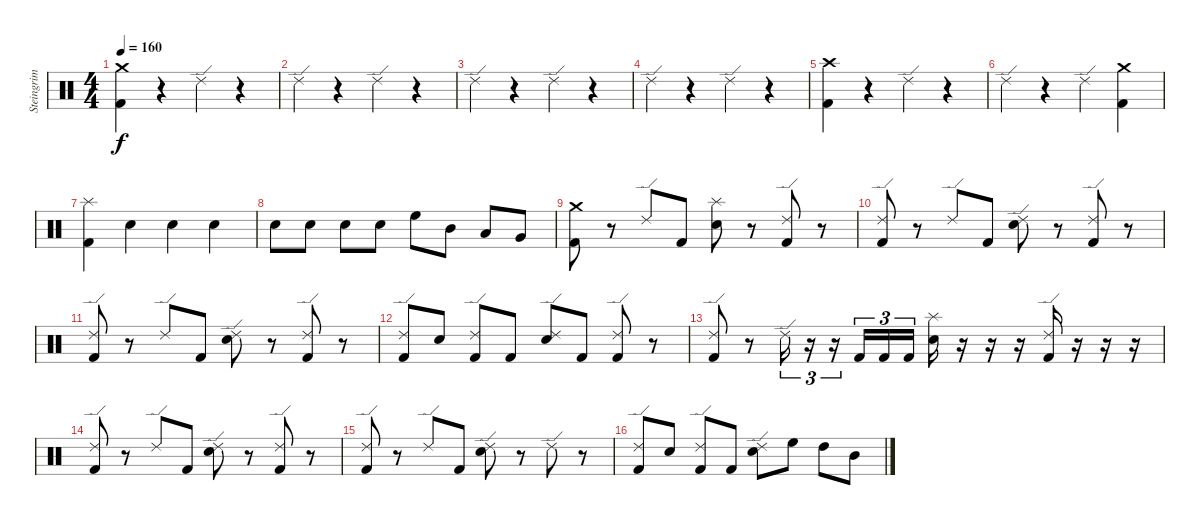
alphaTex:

\track ("Steingrim Trommur" "Steingrim ") {instrument percussion}
\staff {score}
\articulation defaults
\ts (4 4)
\tempo 160
\clef neutral
\ks c
("Crash medium (hit)" "Kick (hit) 2").4{dy f} r.4 "Ride (edge) 2".4 r.4 |
"Ride (edge) 2".4 r.4 "Ride (edge) 2".4 r.4 |
"Ride (edge) 2".4 r.4 "Ride (edge) 2".4 r.4 |
"Ride (edge) 2".4 r.4 "Ride (edge) 2".4 r.4 |
("Crash high (hit)" "Kick (hit) 2").4 r.4 "Ride (edge) 2".4 r.4 |
"Ride (edge) 2".4 r.4 "Ride (edge) 2".4 ("Crash medium (hit)" "Kick (hit) 2").4 |
("Splash (hit)" "Kick (hit) 2").4 "Electric Snare (hit)".4 "Electric Snare (hit)".4 "Electric Snare (hit)".4 |
"Electric Snare (hit)".8 "Electric Snare (hit)".8 "Electric Snare (hit)".8 "Electric Snare (hit)".8 "High Floor Tom (hit)".8 "Mid Tom (hit)".8 "Low Tom (hit)".8 "Very Low Tom (hit)".8 |
("Crash medium (hit)" "Kick (hit) 2").8 r.8 "Ride (edge) 2".8 "Kick (hit) 2".8 ("Splash (hit)" "Electric Snare (hit)").8 r.8 ("Ride (edge) 2" "Kick (hit) 2").8 r.8 |
("Ride (edge) 2" "Kick (hit) 2").8 r.8 "Ride (edge) 2".8 "Kick (hit) 2".8 ("Ride (edge) 2" "Electric Snare (hit)").8 r.8 ("Ride (edge) 2" "Kick (hit) 2").8 r.8 |
("Ride (edge) 2" "Kick (hit) 2").8 r.8 "Ride (edge) 2".8 "Kick (hit) 2".8 ("Ride (edge) 2" "Electric Snare (hit)").8 r.8 ("Ride (edge) 2" "Kick (hit) 2").8 r.8 |
("Ride (edge) 2" "Kick (hit) 2").8 "Electric Snare (hit)".8 ("Ride (edge) 2" "Kick (hit) 2").8 "Kick (hit) 2".8 ("Ride (edge) 2" "Electric Snare (hit)").8 "Kick (hit) 2".8 ("Ride (edge) 2" "Kick (hit) 2").8 r.8 |
("Ride (edge) 2" "Kick (hit) 2").8 r.8 "Ride (edge) 2".16{tu (3 2)} r.16{tu (3 2)} r.16{tu (3 2)} "Kick (hit) 2".16{tu (3 2)} "Kick (hit) 2".16{tu (3 2)} "Kick (hit) 2".16{tu (3 2)} ("Splash (hit)" "Electric Snare (hit)").16 r.16 r.16 r.16 ("Ride (edge) 2" "Kick (hit) 2").16 r.16 r.16 r.16 |
("Ride (edge) 2" "Kick (hit) 2").8 r.8 "Ride (edge) 2".8 "Kick (hit) 2".8 ("Ride (edge) 2" "Electric Snare (hit)").8 r.8 ("Ride (edge) 2" "Kick (hit) 2").8 r.8 |
("Ride (edge) 2" "Kick (hit) 2").8 r.8 "Ride (edge) 2".8 "Kick (hit) 2".8 ("Ride (edge) 2" "Electric Snare (hit)").8 r.8 "Ride (edge) 2".8 r.8 |
("Ride (edge) 2" "Kick (hit) 2").8 "Electric Snare (hit)".8 ("Ride (edge) 2" "Kick (hit) 2").8 "Kick (hit) 2".8 ("Ride (edge) 2" "Electric Snare (hit)").8 "High Floor Tom (hit)".8 "High Tom (hit)".8 "Mid Tom (hit)".8
